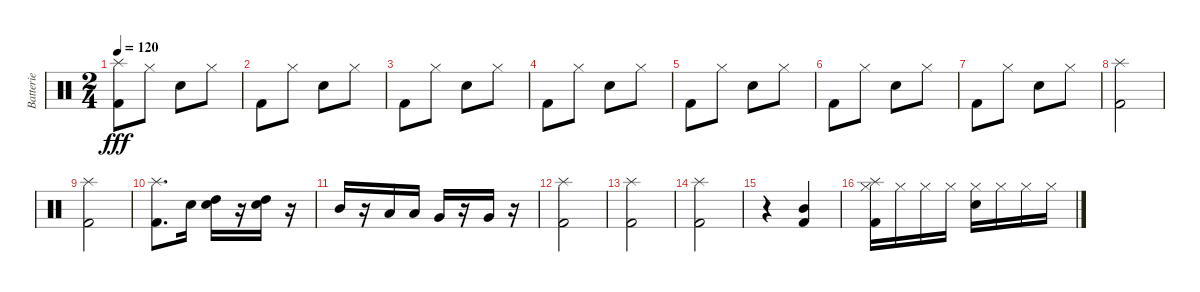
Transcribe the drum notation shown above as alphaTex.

\track ("Batterie" "Batterie") {instrument percussion}
\staff {score}
\articulation defaults
\ts (2 4)
\tempo 120
\clef neutral
\ks c
("Kick (hit) 2" "Splash (hit)").8{dy fff} "Hi-Hat (closed)".8 "Electric Snare (hit)".8 "Hi-Hat (closed)".8 |
"Kick (hit) 2".8 "Hi-Hat (closed)".8 "Electric Snare (hit)".8 "Hi-Hat (closed)".8 |
"Kick (hit) 2".8 "Hi-Hat (closed)".8 "Electric Snare (hit)".8 "Hi-Hat (closed)".8 |
"Kick (hit) 2".8 "Hi-Hat (closed)".8 "Electric Snare (hit)".8 "Hi-Hat (closed)".8 |
"Kick (hit) 2".8 "Hi-Hat (closed)".8 "Electric Snare (hit)".8 "Hi-Hat (closed)".8 |
"Kick (hit) 2".8 "Hi-Hat (closed)".8 "Electric Snare (hit)".8 "Hi-Hat (closed)".8 |
"Kick (hit) 2".8 "Hi-Hat (closed)".8 "Electric Snare (hit)".8 "Hi-Hat (closed)".8 |
("Kick (hit) 2" "Splash (hit)").2 |
("Kick (hit) 2" "Splash (hit)").2 |
("Kick (hit) 2" "Splash (hit)").8{d} "Electric Snare (hit)".16 ("Electric Snare (hit)" "High Tom (hit)").16 r.16 ("Electric Snare (hit)" "High Tom (hit)").16 r.16 |
"Mid Tom (hit)".16 r.16 "Low Tom (hit)".16 "Low Tom (hit)".16 "Very Low Tom (hit)".16 r.16 "Very Low Tom (hit)".16 r.16 |
("Kick (hit) 2" "Splash (hit)").2 |
("Kick (hit) 2" "Splash (hit)").2 |
("Kick (hit) 2" "Splash (hit)").2 |
r.4 ("Kick (hit) 2" "Mid Tom (hit)").4 |
("Kick (hit) 2" "Hi-Hat (closed)" "Splash (hit)").16 "Hi-Hat (closed)".16 "Hi-Hat (closed)".16 "Hi-Hat (closed)".16 ("Hi-Hat (closed)" "Electric Snare (hit)").16 "Hi-Hat (closed)".16 "Hi-Hat (closed)".16 "Hi-Hat (closed)".16
